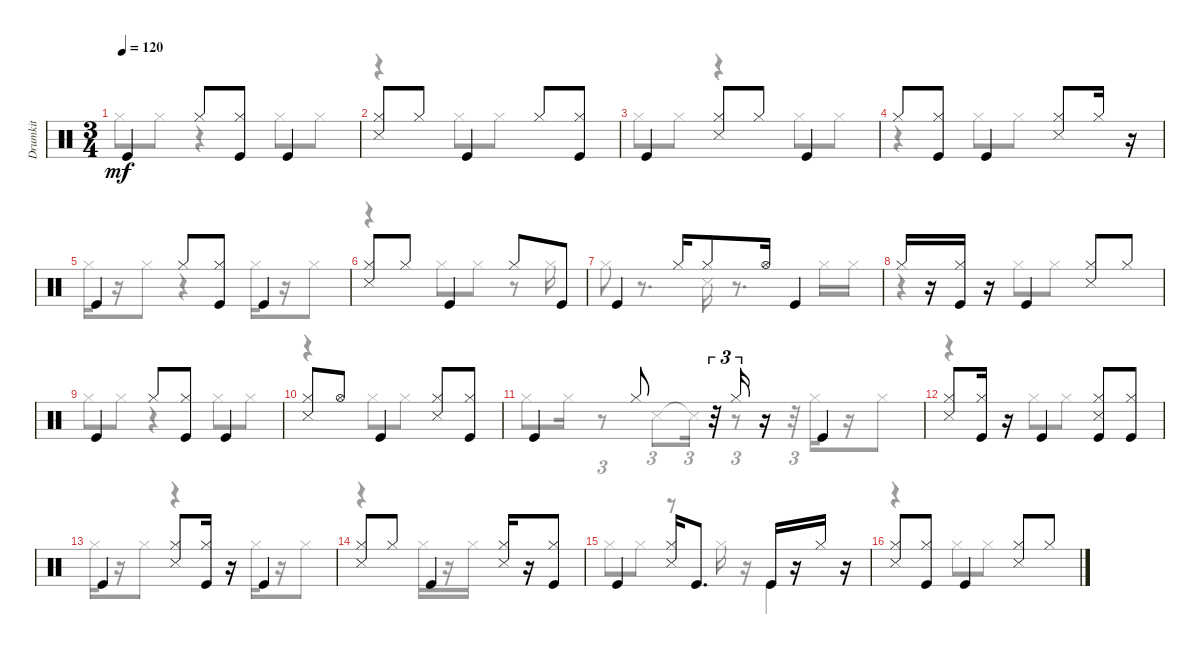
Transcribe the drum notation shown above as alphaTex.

\track ("Drumkit" "Drumkit") {instrument percussion}
\staff {score}
\articulation defaults
\voice
\ts (3 4)
\tempo 120
\clef neutral
\ks aminor "Kick (hit)".4{dy mf} "Hi-Hat (closed)".8
("Kick (hit)" "Hi-Hat (closed)").8 "Kick (hit)".4 |
("Snare (side stick) 3" "Hi-Hat (closed)").8 "Hi-Hat (closed)".8 "Kick (hit)".4 "Hi-Hat (closed)".8 ("Hi-Hat (closed)" "Kick (hit)").8 |
"Kick (hit)".4 ("Snare (side stick) 3" "Hi-Hat (closed)").8 "Hi-Hat (closed)".8 "Kick (hit)".4 |
"Hi-Hat (closed)".8 ("Hi-Hat (closed)" "Kick (hit)").8 "Kick (hit)".4 ("Hi-Hat (closed)" "Snare (side stick) 3").8 "Hi-Hat (closed)".16 r.16 |
"Kick (hit)".4 "Hi-Hat (closed)".8 ("Hi-Hat (closed)" "Kick (hit)").8 "Kick (hit)".4 |
("Snare (side stick) 3" "Hi-Hat (closed)").8 "Hi-Hat (closed)".8 "Kick (hit)".4 "Hi-Hat (closed)".8 "Kick (hit)".8 |
"Kick (hit)".4 "Hi-Hat (closed)".16 "Hi-Hat (closed)".8 "Hi-Hat (open)".16 "Kick (hit)".4 |
"Hi-Hat (closed)".16 r.16 ("Kick (hit)" "Hi-Hat (closed)").16 r.16 "Kick (hit)".4 ("Snare (side stick) 3" "Hi-Hat (closed)").8 "Hi-Hat (closed)".8 |
"Kick (hit)".4 "Hi-Hat (closed)".8 ("Kick (hit)" "Hi-Hat (closed)").8 "Kick (hit)".4 |
("Hi-Hat (closed)" "Snare (side stick) 3").8 "Hi-Hat (open)".8 "Kick (hit)".4 ("Hi-Hat (closed)" "Snare (side stick) 3").8 ("Kick (hit)" "Hi-Hat (closed)").8 |
"Kick (hit)".4 "Hi-Hat (closed)".8 r.32{tu (3 2)} "Hi-Hat (closed)".16{tu (3 2)} r.16 "Kick (hit)".4 |
("Snare (side stick) 3" "Hi-Hat (closed)").8 ("Hi-Hat (closed)" "Kick (hit)").16 r.16 "Kick (hit)".4 ("Snare (side stick) 3" "Hi-Hat (closed)" "Kick (hit)").8 ("Hi-Hat (closed)" "Kick (hit)").8 |
"Kick (hit)".4 ("Hi-Hat (closed)" "Snare (side stick) 3").8 ("Kick (hit)" "Hi-Hat (closed)").16 r.16 "Kick (hit)".4 |
("Hi-Hat (closed)" "Snare (side stick) 3").8 "Hi-Hat (closed)".8 "Kick (hit)".4 ("Hi-Hat (closed)" "Snare (side stick) 3").16 r.16 ("Hi-Hat (closed)" "Kick (hit)").8 |
"Kick (hit)".4 ("Snare (side stick) 3" "Hi-Hat (closed)").16 "Kick (hit)".8{d} "Kick (hit)".16 r.16 "Hi-Hat (closed)".16 r.16 |
("Hi-Hat (closed)" "Snare (side stick) 3").8 ("Kick (hit)" "Hi-Hat (closed)").8 "Kick (hit)".4 ("Snare (side stick) 3" "Hi-Hat (closed)").8 "Hi-Hat (closed)".8
\voice
\clef neutral
\ottava regular
\simile none
\ks aminor "Hi-Hat (closed)".8{dy mf} "Hi-Hat (closed)".8
r.4 "Hi-Hat (closed)".8 "Hi-Hat (closed)".8 |
r.4 "Hi-Hat (closed)".8 "Hi-Hat (closed)".8 |
"Hi-Hat (closed)".8 "Hi-Hat (closed)".8 r.4 "Hi-Hat (closed)".8 "Hi-Hat (closed)".8 |
r.4 "Hi-Hat (closed)".8 "Hi-Hat (closed)".8 |
"Hi-Hat (closed)".16 r.16 "Hi-Hat (closed)".8 r.4 "Hi-Hat (closed)".16 r.16 "Hi-Hat (closed)".8 |
r.4 "Hi-Hat (closed)".8 "Hi-Hat (closed)".8 r.8 "Hi-Hat (closed)".16 |
"Hi-Hat (closed)".8 r.8{d} "Snare (side stick) 3".16 r.8{d} "Hi-Hat (closed)".16 "Hi-Hat (closed)".16 |
r.4 "Hi-Hat (closed)".8 "Hi-Hat (closed)".8 |
"Hi-Hat (closed)".8 "Hi-Hat (closed)".8 r.4 "Hi-Hat (closed)".8 "Hi-Hat (closed)".8 |
r.4 "Hi-Hat (closed)".8 "Hi-Hat (closed)".8 |
"Hi-Hat (closed)".8 "Hi-Hat (closed)".16 r.8{tu (3 2)} "Snare (side stick) 3".8{tu (3 2)} "Snare (side stick) 3"{t}.16{tu (3 2)} r.8{tu (3 2)} r.32{tu (3 2)} "Hi-Hat (closed)".16 r.16 "Hi-Hat (closed)".8 |
r.4 "Hi-Hat (closed)".8 "Hi-Hat (closed)".8 |
"Hi-Hat (closed)".16 r.16 "Hi-Hat (closed)".8 r.4 "Hi-Hat (closed)".16 r.16 "Hi-Hat (closed)".8 |
r.4 "Hi-Hat (closed)".16 r.16 "Hi-Hat (closed)".16 |
"Hi-Hat (closed)".8 "Hi-Hat (closed)".8 r.8 "Hi-Hat (closed)".16 r.16 "Kick (hit)".4 |
r.4 "Hi-Hat (closed)".8 "Hi-Hat (closed)".8
